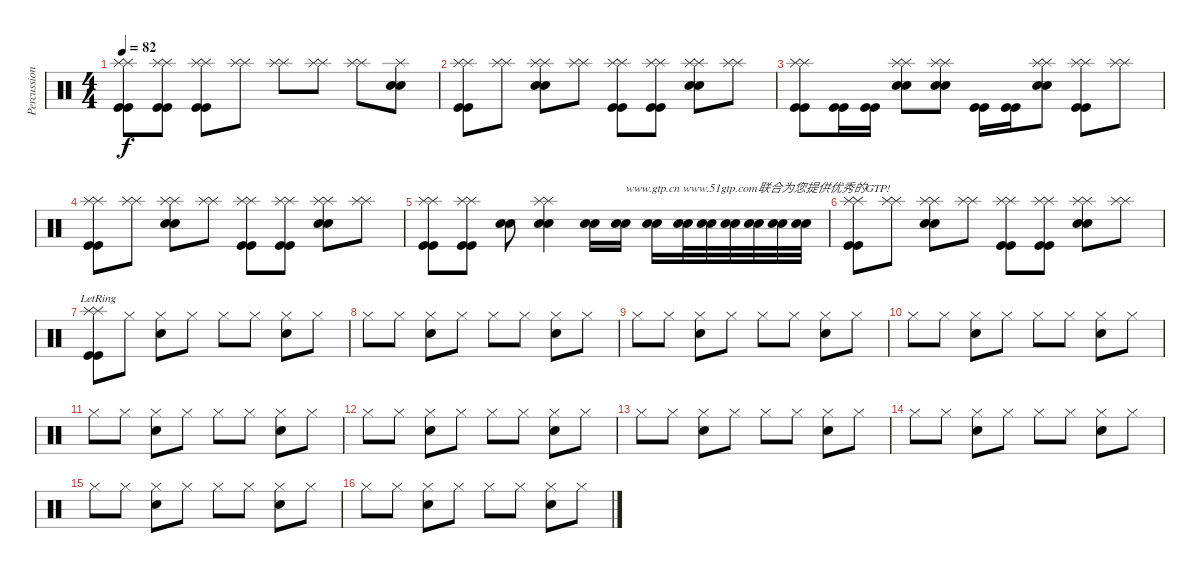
\track ("Percussions" "Percussion") {instrument percussion}
\staff {score}
\articulation defaults
\ts (4 4)
\tempo 82
\clef neutral
\ks c
("Splash (hit)" "Splash (hit)" "Kick (hit)" "Kick (hit)").8{dy f} ("Splash (hit)" "Splash (hit)" "Kick (hit)" "Kick (hit)").8 ("Splash (hit)" "Splash (hit)" "Kick (hit)" "Kick (hit)").8 ("Splash (hit)" "Splash (hit)").8 ("Splash (hit)" "Splash (hit)").8 ("Splash (hit)" "Splash (hit)").8 ("Splash (hit)" "Splash (hit)").8 ("Splash (hit)" "Electric Snare (hit)" "Electric Snare (hit)").8 |
("Splash (hit)" "Splash (hit)" "Kick (hit)" "Kick (hit)").8 ("Splash (hit)" "Splash (hit)").8 ("Splash (hit)" "Splash (hit)" "Electric Snare (hit)" "Electric Snare (hit)").8 ("Splash (hit)" "Splash (hit)").8 ("Splash (hit)" "Splash (hit)" "Kick (hit)" "Kick (hit)").8 ("Splash (hit)" "Splash (hit)" "Kick (hit)" "Kick (hit)").8 ("Splash (hit)" "Splash (hit)" "Electric Snare (hit)" "Electric Snare (hit)").8 ("Splash (hit)" "Splash (hit)").8 |
("Splash (hit)" "Splash (hit)" "Kick (hit)" "Kick (hit)").8 ("Kick (hit)" "Kick (hit)").16 ("Kick (hit)" "Kick (hit)").16 ("Splash (hit)" "Splash (hit)" "Electric Snare (hit)" "Electric Snare (hit)").8 ("Splash (hit)" "Splash (hit)" "Electric Snare (hit)" "Electric Snare (hit)").8 ("Kick (hit)" "Kick (hit)").16 ("Kick (hit)" "Kick (hit)").16 ("Splash (hit)" "Splash (hit)" "Electric Snare (hit)" "Electric Snare (hit)").8 ("Splash (hit)" "Splash (hit)" "Kick (hit)" "Kick (hit)").8 ("Splash (hit)" "Splash (hit)").8 |
("Splash (hit)" "Splash (hit)" "Kick (hit)" "Kick (hit)").8 ("Splash (hit)" "Splash (hit)").8 ("Splash (hit)" "Splash (hit)" "Electric Snare (hit)" "Electric Snare (hit)").8 ("Splash (hit)" "Splash (hit)").8 ("Splash (hit)" "Splash (hit)" "Kick (hit)" "Kick (hit)").8 ("Splash (hit)" "Splash (hit)" "Kick (hit)" "Kick (hit)").8 ("Splash (hit)" "Splash (hit)" "Electric Snare (hit)" "Electric Snare (hit)").8 ("Splash (hit)" "Splash (hit)").8 |
("Splash (hit)" "Splash (hit)" "Kick (hit)" "Kick (hit)").8 ("Splash (hit)" "Splash (hit)" "Kick (hit)" "Kick (hit)").8 ("Electric Snare (hit)" "Electric Snare (hit)").8 ("Splash (hit)" "Splash (hit)" "Electric Snare (hit)" "Electric Snare (hit)").4 ("Electric Snare (hit)" "Electric Snare (hit)").16 ("Electric Snare (hit)" "Electric Snare (hit)").16{txt "www.gtp.cn www.51gtp.com联合为您提供优秀的GTP!"} ("Electric Snare (hit)" "Electric Snare (hit)").16 ("Electric Snare (hit)" "Electric Snare (hit)").32 ("Electric Snare (hit)" "Electric Snare (hit)").32 ("Electric Snare (hit)" "Electric Snare (hit)").32 ("Electric Snare (hit)" "Electric Snare (hit)").32 ("Electric Snare (hit)" "Electric Snare (hit)").32 ("Electric Snare (hit)" "Electric Snare (hit)").32 |
("Splash (hit)" "Splash (hit)" "Kick (hit)" "Kick (hit)").8 ("Splash (hit)" "Splash (hit)").8 ("Splash (hit)" "Splash (hit)" "Electric Snare (hit)" "Electric Snare (hit)").8 ("Splash (hit)" "Splash (hit)").8 ("Splash (hit)" "Splash (hit)" "Kick (hit)" "Kick (hit)").8 ("Splash (hit)" "Splash (hit)" "Kick (hit)" "Kick (hit)").8 ("Splash (hit)" "Splash (hit)" "Electric Snare (hit)" "Electric Snare (hit)").8 ("Splash (hit)" "Splash (hit)").8 |
("Splash (hit)"{lr} "Splash (hit)"{lr} "Kick (hit)" "Kick (hit)").8 "Hi-Hat (closed)".8{volume 12} ("Hi-Hat (closed)" "Electric Snare (hit)").8 "Hi-Hat (closed)".8 "Hi-Hat (closed)".8 "Hi-Hat (closed)".8 ("Hi-Hat (closed)" "Electric Snare (hit)").8 "Hi-Hat (closed)".8 |
"Hi-Hat (closed)".8 "Hi-Hat (closed)".8 ("Hi-Hat (closed)" "Electric Snare (hit)").8 "Hi-Hat (closed)".8 "Hi-Hat (closed)".8 "Hi-Hat (closed)".8 ("Hi-Hat (closed)" "Electric Snare (hit)").8 "Hi-Hat (closed)".8 |
"Hi-Hat (closed)".8 "Hi-Hat (closed)".8 ("Hi-Hat (closed)" "Electric Snare (hit)").8 "Hi-Hat (closed)".8 "Hi-Hat (closed)".8 "Hi-Hat (closed)".8 ("Hi-Hat (closed)" "Electric Snare (hit)").8 "Hi-Hat (closed)".8 |
"Hi-Hat (closed)".8 "Hi-Hat (closed)".8 ("Hi-Hat (closed)" "Electric Snare (hit)").8 "Hi-Hat (closed)".8 "Hi-Hat (closed)".8 "Hi-Hat (closed)".8 ("Hi-Hat (closed)" "Electric Snare (hit)").8 "Hi-Hat (closed)".8 |
"Hi-Hat (closed)".8 "Hi-Hat (closed)".8 ("Hi-Hat (closed)" "Electric Snare (hit)").8 "Hi-Hat (closed)".8 "Hi-Hat (closed)".8 "Hi-Hat (closed)".8 ("Hi-Hat (closed)" "Electric Snare (hit)").8 "Hi-Hat (closed)".8 |
"Hi-Hat (closed)".8 "Hi-Hat (closed)".8 ("Hi-Hat (closed)" "Electric Snare (hit)").8 "Hi-Hat (closed)".8 "Hi-Hat (closed)".8 "Hi-Hat (closed)".8 ("Hi-Hat (closed)" "Electric Snare (hit)").8 "Hi-Hat (closed)".8 |
"Hi-Hat (closed)".8 "Hi-Hat (closed)".8 ("Hi-Hat (closed)" "Electric Snare (hit)").8 "Hi-Hat (closed)".8 "Hi-Hat (closed)".8 "Hi-Hat (closed)".8 ("Hi-Hat (closed)" "Electric Snare (hit)").8 "Hi-Hat (closed)".8 |
"Hi-Hat (closed)".8 "Hi-Hat (closed)".8 ("Hi-Hat (closed)" "Electric Snare (hit)").8 "Hi-Hat (closed)".8 "Hi-Hat (closed)".8 "Hi-Hat (closed)".8 ("Hi-Hat (closed)" "Electric Snare (hit)").8 "Hi-Hat (closed)".8 |
"Hi-Hat (closed)".8 "Hi-Hat (closed)".8 ("Hi-Hat (closed)" "Electric Snare (hit)").8 "Hi-Hat (closed)".8 "Hi-Hat (closed)".8 "Hi-Hat (closed)".8 ("Hi-Hat (closed)" "Electric Snare (hit)").8 "Hi-Hat (closed)".8 |
"Hi-Hat (closed)".8 "Hi-Hat (closed)".8 ("Hi-Hat (closed)" "Electric Snare (hit)").8 "Hi-Hat (closed)".8 "Hi-Hat (closed)".8 "Hi-Hat (closed)".8 ("Hi-Hat (closed)" "Electric Snare (hit)").8 "Hi-Hat (closed)".8
